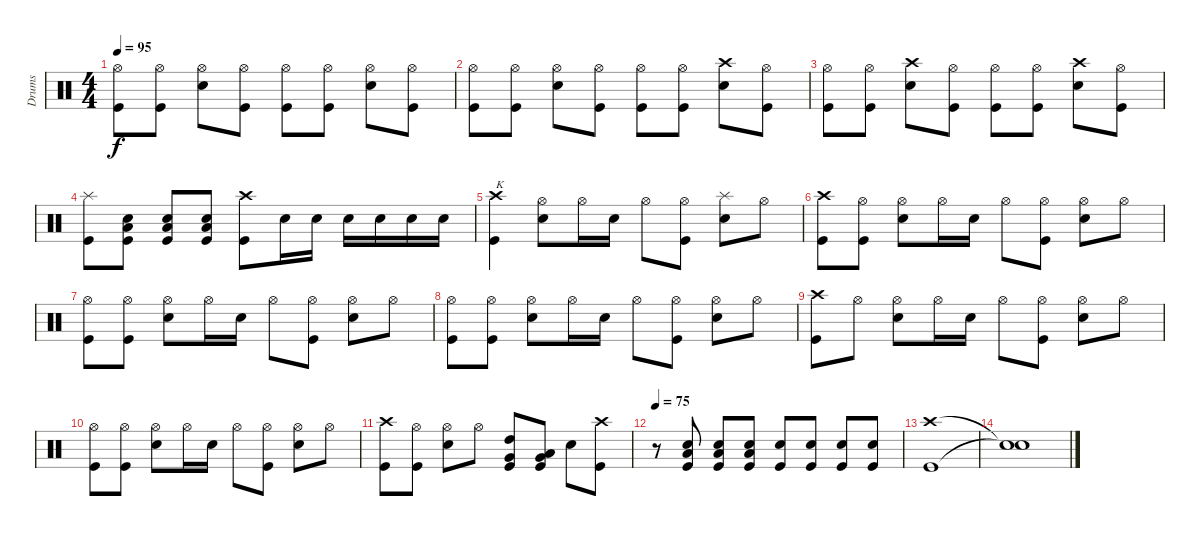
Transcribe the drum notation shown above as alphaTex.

\track ("Drums" "Drums") {instrument percussion}
\staff {score}
\articulation defaults
\ts (4 4)
\tempo 95
\clef neutral
\ks c
("Hi-Hat (open)" "Kick (hit)").8{dy f} ("Hi-Hat (open)" "Kick (hit)").8 ("Hi-Hat (open)" "Electric Snare (hit)").8 ("Hi-Hat (open)" "Kick (hit)").8 ("Hi-Hat (open)" "Kick (hit)").8 ("Hi-Hat (open)" "Kick (hit)").8 ("Hi-Hat (open)" "Electric Snare (hit)").8 ("Hi-Hat (open)" "Kick (hit)").8 |
("Hi-Hat (open)" "Kick (hit)").8 ("Hi-Hat (open)" "Kick (hit)").8 ("Hi-Hat (open)" "Electric Snare (hit)").8 ("Hi-Hat (open)" "Kick (hit)").8 ("Hi-Hat (open)" "Kick (hit)").8 ("Hi-Hat (open)" "Kick (hit)").8 ("Crash high (hit)" "Electric Snare (hit)").8 ("Hi-Hat (open)" "Kick (hit)").8 |
("Hi-Hat (open)" "Kick (hit)").8 ("Hi-Hat (open)" "Kick (hit)").8 ("Crash high (hit)" "Electric Snare (hit)").8 ("Hi-Hat (open)" "Kick (hit)").8 ("Hi-Hat (open)" "Kick (hit)").8 ("Hi-Hat (open)" "Kick (hit)").8 ("Crash high (hit)" "Electric Snare (hit)").8 ("Hi-Hat (open)" "Kick (hit)").8 |
("Splash (hit)" "Kick (hit)").8 ("Low Floor Tom (hit)" "Electric Snare (hit)" "Kick (hit)").8 ("Low Floor Tom (hit)" "Electric Snare (hit)" "Kick (hit)").8 ("Low Floor Tom (hit)" "Electric Snare (hit)" "Kick (hit)").8 ("Crash high (hit)" "Kick (hit)").8 "Electric Snare (hit)".16 "Electric Snare (hit)".16 "Electric Snare (hit)".16 "Electric Snare (hit)".16 "Electric Snare (hit)".16 "Electric Snare (hit)".16 |
("Crash high (hit)" "Kick (hit)").4{txt "K"} ("Hi-Hat (open)" "Electric Snare (hit)").8 "Hi-Hat (open)".16 "Electric Snare (hit)".16 "Hi-Hat (open)".8 ("Hi-Hat (open)" "Kick (hit)").8 ("Splash (hit)" "Electric Snare (hit)").8 "Hi-Hat (open)".8 |
("Crash high (hit)" "Kick (hit)").8 ("Hi-Hat (open)" "Kick (hit)").8 ("Hi-Hat (open)" "Electric Snare (hit)").8 "Hi-Hat (open)".16 "Electric Snare (hit)".16 "Hi-Hat (open)".8 ("Hi-Hat (open)" "Kick (hit)").8 ("Hi-Hat (open)" "Electric Snare (hit)").8 "Hi-Hat (open)".8 |
("Hi-Hat (open)" "Kick (hit)").8 ("Hi-Hat (open)" "Kick (hit)").8 ("Hi-Hat (open)" "Electric Snare (hit)").8 "Hi-Hat (open)".16 "Electric Snare (hit)".16 "Hi-Hat (open)".8 ("Hi-Hat (open)" "Kick (hit)").8 ("Hi-Hat (open)" "Electric Snare (hit)").8 "Hi-Hat (open)".8 |
("Hi-Hat (open)" "Kick (hit)").8 ("Hi-Hat (open)" "Kick (hit)").8 ("Hi-Hat (open)" "Electric Snare (hit)").8 "Hi-Hat (open)".16 "Electric Snare (hit)".16 "Hi-Hat (open)".8 ("Hi-Hat (open)" "Kick (hit)").8 ("Hi-Hat (open)" "Electric Snare (hit)").8 "Hi-Hat (open)".8 |
("Crash high (hit)" "Kick (hit)").8 "Hi-Hat (open)".8 ("Hi-Hat (open)" "Electric Snare (hit)").8 "Hi-Hat (open)".16 "Electric Snare (hit)".16 "Hi-Hat (open)".8 ("Hi-Hat (open)" "Kick (hit)").8 ("Hi-Hat (open)" "Electric Snare (hit)").8 "Hi-Hat (open)".8 |
("Hi-Hat (open)" "Kick (hit)").8 ("Hi-Hat (open)" "Kick (hit)").8 ("Hi-Hat (open)" "Electric Snare (hit)").8 "Hi-Hat (open)".16 "Electric Snare (hit)".16 "Hi-Hat (open)".8 ("Hi-Hat (open)" "Kick (hit)").8 ("Hi-Hat (open)" "Electric Snare (hit)").8 "Hi-Hat (open)".8 |
("Crash high (hit)" "Kick (hit)").8 ("Hi-Hat (open)" "Kick (hit)").8 ("Hi-Hat (open)" "Electric Snare (hit)").8 "Hi-Hat (open)".8 ("High Tom (hit)" "Very Low Tom (hit)" "Kick (hit)").8 ("Low Floor Tom (hit)" "Very Low Tom (hit)" "Kick (hit)").8 "Electric Snare (hit)".8 ("Crash high (hit)" "Kick (hit)").8 |
\tempo 75
r.8 ("Low Floor Tom (hit)" "Electric Snare (hit)" "Kick (hit)").8 ("Low Floor Tom (hit)" "Electric Snare (hit)" "Kick (hit)").8 ("Low Floor Tom (hit)" "Electric Snare (hit)" "Kick (hit)").8 ("Electric Snare (hit)" "Kick (hit)").8 ("Electric Snare (hit)" "Kick (hit)").8 ("Electric Snare (hit)" "Kick (hit)").8 ("Electric Snare (hit)" "Kick (hit)").8 |
("Crash high (hit)" "Kick (hit)").1 |
("Snare (hit)"{t} "Snare (hit)"{t}).1
